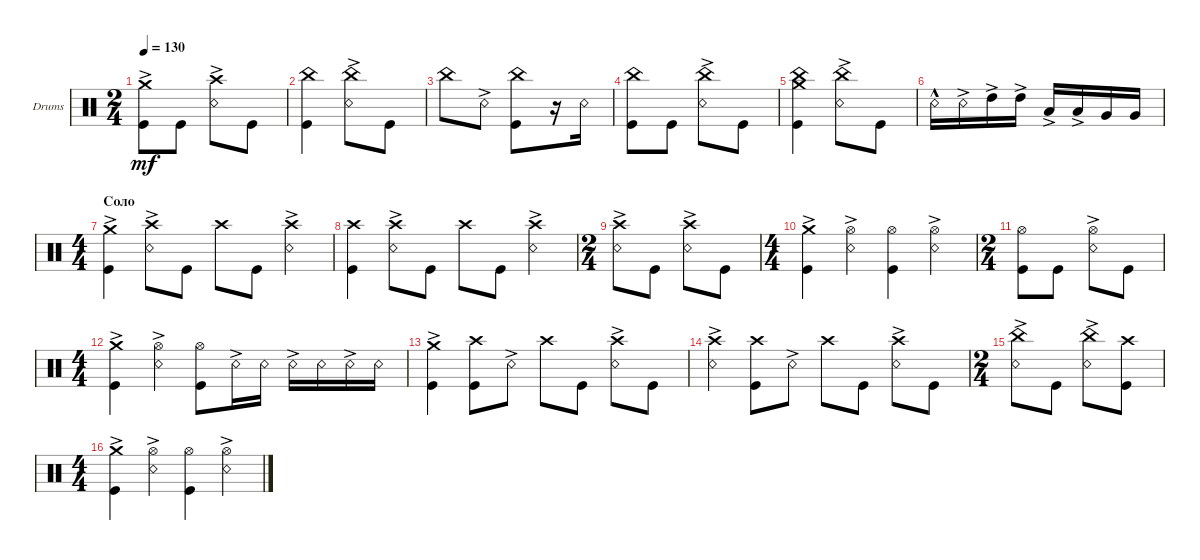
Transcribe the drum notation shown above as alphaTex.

\defaultSystemsLayout 4
\bracketExtendMode groupsimilarinstruments
\firstSystemTrackNameOrientation horizontal
\otherSystemsTrackNameOrientation horizontal
\track ("Drumkit" "Drums") {instrument percussion}
\staff {score}
\articulation defaults
\ts (2 4)
\tempo 130
\clef neutral
\ks c
("Crash medium (hit)"{ac} "Kick (hit)").8{dy mf} "Kick (hit)".8 ("Snare (rim shot)"{ac} "Crash high (hit)").8 "Kick (hit)".8 |
("China (hit)" "Kick (hit)").4 ("China (hit)" "Snare (rim shot)"{ac}).8 "Kick (hit)".8 |
"China (hit)".8 "Snare (rim shot)"{ac}.8 ("China (hit)" "Kick (hit)").8 r.16 "Snare (rim shot)".16 |
("China (hit)" "Kick (hit)").8 "Kick (hit)".8 ("China (hit)" "Snare (rim shot)"{ac}).8 "Kick (hit)".8 |
("Crash medium (hit)" "China (hit)" "Kick (hit)").4 ("China (hit)" "Snare (rim shot)"{ac}).8 "Kick (hit)".8 |
"Snare (rim shot)"{hac}.16 "Snare (rim shot)"{ac}.16 "High Tom (hit)"{ac}.16 "High Tom (hit)"{ac}.16 "Low Tom (hit)"{ac}.16 "Low Tom (hit)"{ac}.16 "Very Low Tom (hit)".16 "Very Low Tom (hit)".16 |
\ts (4 4)
\section ("" "Соло")
("Crash medium (hit)"{ac} "Kick (hit)").4 ("Crash high (hit)" "Snare (rim shot)"{ac}).8 "Kick (hit)".8 "Crash high (hit)".8 "Kick (hit)".8 ("Crash high (hit)" "Snare (rim shot)"{ac}).4 |
("Crash high (hit)" "Kick (hit)").4 ("Crash high (hit)" "Snare (rim shot)"{ac}).8 "Kick (hit)".8 "Crash high (hit)".8 "Kick (hit)".8 ("Crash high (hit)" "Snare (rim shot)"{ac}).4 |
\ts (2 4)
("Snare (rim shot)"{ac} "Crash high (hit)").8 "Kick (hit)".8 ("Crash high (hit)" "Snare (rim shot)"{ac}).8 "Kick (hit)".8 |
\ts (4 4)
("Crash medium (hit)"{ac} "Kick (hit)").4 ("Hi-Hat (open)" "Snare (rim shot)"{ac}).4 ("Hi-Hat (open)" "Kick (hit)").4 ("Hi-Hat (open)" "Snare (rim shot)"{ac}).4 |
\ts (2 4)
("Hi-Hat (open)" "Kick (hit)").8 "Kick (hit)".8 ("Hi-Hat (open)" "Snare (rim shot)"{ac}).8 "Kick (hit)".8 |
\ts (4 4)
("Crash medium (hit)"{ac} "Kick (hit)").4 ("Hi-Hat (open)" "Snare (rim shot)"{ac}).4 ("Hi-Hat (open)" "Kick (hit)").8 "Snare (rim shot)"{ac}.16 "Snare (rim shot)".16 "Snare (rim shot)"{ac}.16 "Snare (rim shot)".16 "Snare (rim shot)"{ac}.16 "Snare (rim shot)".16 |
("Crash medium (hit)"{ac} "Kick (hit)").4 ("Crash high (hit)" "Kick (hit)").8 "Snare (rim shot)"{ac}.8 "Crash high (hit)".8 "Kick (hit)".8 ("Crash high (hit)" "Snare (rim shot)"{ac}).8 "Kick (hit)".8 |
("Crash high (hit)" "Snare (rim shot)"{ac}).4 ("Crash high (hit)" "Kick (hit)").8 "Snare (rim shot)"{ac}.8 "Crash high (hit)".8 "Kick (hit)".8 ("Crash high (hit)" "Snare (rim shot)"{ac}).8 "Kick (hit)".8 |
\ts (2 4)
("Snare (rim shot)"{ac} "China (hit)").8 "Kick (hit)".8 ("Snare (rim shot)"{ac} "China (hit)").8 ("Kick (hit)" "Crash high (hit)").8 |
\ts (4 4)
("Crash medium (hit)"{ac} "Kick (hit)").4 ("Hi-Hat (open)" "Snare (rim shot)"{ac}).4 ("Hi-Hat (open)" "Kick (hit)").4 ("Hi-Hat (open)" "Snare (rim shot)"{ac}).4
